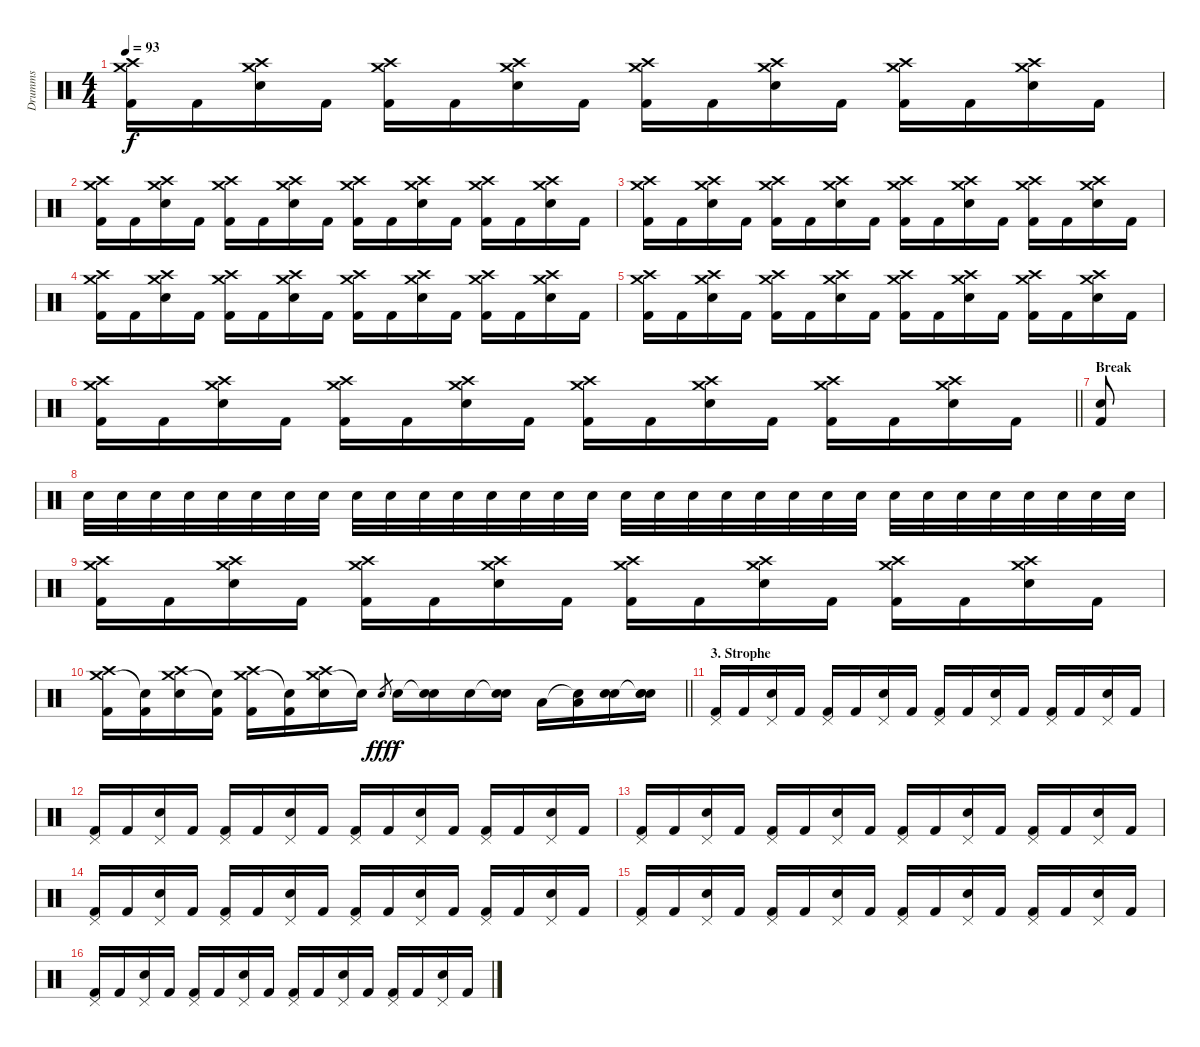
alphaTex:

\track ("Drumms" "Drumms") {instrument percussion}
\staff {score}
\articulation defaults
\ts (4 4)
\tempo 93
\clef neutral
\ks c
("Crash medium (hit)" "Crash high (hit)" "Kick (hit) 2").16{dy f} "Kick (hit) 2".16 ("Crash medium (hit)" "Crash high (hit)" "Electric Snare (hit)").16 "Kick (hit) 2".16 ("Crash medium (hit)" "Crash high (hit)" "Kick (hit) 2").16 "Kick (hit) 2".16 ("Crash medium (hit)" "Crash high (hit)" "Electric Snare (hit)").16 "Kick (hit) 2".16 ("Crash medium (hit)" "Crash high (hit)" "Kick (hit) 2").16 "Kick (hit) 2".16 ("Crash medium (hit)" "Crash high (hit)" "Electric Snare (hit)").16 "Kick (hit) 2".16 ("Crash medium (hit)" "Crash high (hit)" "Kick (hit) 2").16 "Kick (hit) 2".16 ("Crash medium (hit)" "Crash high (hit)" "Electric Snare (hit)").16 "Kick (hit) 2".16 |
("Crash medium (hit)" "Crash high (hit)" "Kick (hit) 2").16 "Kick (hit) 2".16 ("Crash medium (hit)" "Crash high (hit)" "Electric Snare (hit)").16 "Kick (hit) 2".16 ("Crash medium (hit)" "Crash high (hit)" "Kick (hit) 2").16 "Kick (hit) 2".16 ("Crash medium (hit)" "Crash high (hit)" "Electric Snare (hit)").16 "Kick (hit) 2".16 ("Crash medium (hit)" "Crash high (hit)" "Kick (hit) 2").16 "Kick (hit) 2".16 ("Crash medium (hit)" "Crash high (hit)" "Electric Snare (hit)").16 "Kick (hit) 2".16 ("Crash medium (hit)" "Crash high (hit)" "Kick (hit) 2").16 "Kick (hit) 2".16 ("Crash medium (hit)" "Crash high (hit)" "Electric Snare (hit)").16 "Kick (hit) 2".16 |
("Crash medium (hit)" "Crash high (hit)" "Kick (hit) 2").16 "Kick (hit) 2".16 ("Crash medium (hit)" "Crash high (hit)" "Electric Snare (hit)").16 "Kick (hit) 2".16 ("Crash medium (hit)" "Crash high (hit)" "Kick (hit) 2").16 "Kick (hit) 2".16 ("Crash medium (hit)" "Crash high (hit)" "Electric Snare (hit)").16 "Kick (hit) 2".16 ("Crash medium (hit)" "Crash high (hit)" "Kick (hit) 2").16 "Kick (hit) 2".16 ("Crash medium (hit)" "Crash high (hit)" "Electric Snare (hit)").16 "Kick (hit) 2".16 ("Crash medium (hit)" "Crash high (hit)" "Kick (hit) 2").16 "Kick (hit) 2".16 ("Crash medium (hit)" "Crash high (hit)" "Electric Snare (hit)").16 "Kick (hit) 2".16 |
("Crash medium (hit)" "Crash high (hit)" "Kick (hit) 2").16 "Kick (hit) 2".16 ("Crash medium (hit)" "Crash high (hit)" "Electric Snare (hit)").16 "Kick (hit) 2".16 ("Crash medium (hit)" "Crash high (hit)" "Kick (hit) 2").16 "Kick (hit) 2".16 ("Crash medium (hit)" "Crash high (hit)" "Electric Snare (hit)").16 "Kick (hit) 2".16 ("Crash medium (hit)" "Crash high (hit)" "Kick (hit) 2").16 "Kick (hit) 2".16 ("Crash medium (hit)" "Crash high (hit)" "Electric Snare (hit)").16 "Kick (hit) 2".16 ("Crash medium (hit)" "Crash high (hit)" "Kick (hit) 2").16 "Kick (hit) 2".16 ("Crash medium (hit)" "Crash high (hit)" "Electric Snare (hit)").16 "Kick (hit) 2".16 |
("Crash medium (hit)" "Crash high (hit)" "Kick (hit) 2").16 "Kick (hit) 2".16 ("Crash medium (hit)" "Crash high (hit)" "Electric Snare (hit)").16 "Kick (hit) 2".16 ("Crash medium (hit)" "Crash high (hit)" "Kick (hit) 2").16 "Kick (hit) 2".16 ("Crash medium (hit)" "Crash high (hit)" "Electric Snare (hit)").16 "Kick (hit) 2".16 ("Crash medium (hit)" "Crash high (hit)" "Kick (hit) 2").16 "Kick (hit) 2".16 ("Crash medium (hit)" "Crash high (hit)" "Electric Snare (hit)").16 "Kick (hit) 2".16 ("Crash medium (hit)" "Crash high (hit)" "Kick (hit) 2").16 "Kick (hit) 2".16 ("Crash medium (hit)" "Crash high (hit)" "Electric Snare (hit)").16 "Kick (hit) 2".16 |
\barLineRight lightlight
("Crash medium (hit)" "Crash high (hit)" "Kick (hit) 2").16 "Kick (hit) 2".16 ("Crash medium (hit)" "Crash high (hit)" "Electric Snare (hit)").16 "Kick (hit) 2".16 ("Crash medium (hit)" "Crash high (hit)" "Kick (hit) 2").16 "Kick (hit) 2".16 ("Crash medium (hit)" "Crash high (hit)" "Electric Snare (hit)").16 "Kick (hit) 2".16 ("Crash medium (hit)" "Crash high (hit)" "Kick (hit) 2").16 "Kick (hit) 2".16 ("Crash medium (hit)" "Crash high (hit)" "Electric Snare (hit)").16 "Kick (hit) 2".16 ("Crash medium (hit)" "Crash high (hit)" "Kick (hit) 2").16 "Kick (hit) 2".16 ("Crash medium (hit)" "Crash high (hit)" "Electric Snare (hit)").16 "Kick (hit) 2".16 |
\section ("" "Break")
("Electric Snare (hit)" "Kick (hit) 2").8 |
"Electric Snare (hit)".32 "Electric Snare (hit)".32 "Electric Snare (hit)".32 "Electric Snare (hit)".32 "Electric Snare (hit)".32 "Electric Snare (hit)".32 "Electric Snare (hit)".32 "Electric Snare (hit)".32 "Electric Snare (hit)".32 "Electric Snare (hit)".32 "Electric Snare (hit)".32 "Electric Snare (hit)".32 "Electric Snare (hit)".32 "Electric Snare (hit)".32 "Electric Snare (hit)".32 "Electric Snare (hit)".32 "Electric Snare (hit)".32 "Electric Snare (hit)".32 "Electric Snare (hit)".32 "Electric Snare (hit)".32 "Electric Snare (hit)".32 "Electric Snare (hit)".32 "Electric Snare (hit)".32 "Electric Snare (hit)".32 "Electric Snare (hit)".32 "Electric Snare (hit)".32 "Electric Snare (hit)".32 "Electric Snare (hit)".32 "Electric Snare (hit)".32 "Electric Snare (hit)".32 "Electric Snare (hit)".32 "Electric Snare (hit)".32 |
("Crash medium (hit)" "Crash high (hit)" "Kick (hit) 2").16 "Kick (hit) 2".16 ("Crash medium (hit)" "Crash high (hit)" "Electric Snare (hit)").16 "Kick (hit) 2".16 ("Crash medium (hit)" "Crash high (hit)" "Kick (hit) 2").16 "Kick (hit) 2".16 ("Crash medium (hit)" "Crash high (hit)" "Electric Snare (hit)").16 "Kick (hit) 2".16 ("Crash medium (hit)" "Crash high (hit)" "Kick (hit) 2").16 "Kick (hit) 2".16 ("Crash medium (hit)" "Crash high (hit)" "Electric Snare (hit)").16 "Kick (hit) 2".16 ("Crash medium (hit)" "Crash high (hit)" "Kick (hit) 2").16 "Kick (hit) 2".16 ("Crash medium (hit)" "Crash high (hit)" "Electric Snare (hit)").16 "Kick (hit) 2".16 |
\barLineRight lightlight
("Crash medium (hit)" "Crash high (hit)" "Kick (hit) 2").16 ("Snare (hit)"{t} "Kick (hit) 2").16 ("Crash medium (hit)" "Crash high (hit)" "Electric Snare (hit)").16 ("Snare (hit)"{t} "Kick (hit) 2").16 ("Crash medium (hit)" "Crash high (hit)" "Kick (hit) 2").16 ("Snare (hit)"{t} "Kick (hit) 2").16 ("Crash medium (hit)" "Crash high (hit)" "Electric Snare (hit)").16 "Snare (hit)"{t}.16 "Electric Snare (hit)".8{gr dy fff} "Electric Snare (hit)".16{dy f} ("Snare (hit)"{t} "Electric Snare (hit)").16 "Snare (hit) 2".16 ("Snare (hit)"{t} "Snare (hit) 2").16 "Low Tom (hit)".16 ("Snare (hit)"{t} "Low Tom (hit)").16 ("Electric Snare (hit)" "Snare (hit) 2").16 ("Snare (hit)"{t} "Electric Snare (hit)" "Snare (hit) 2").16 |
\section ("" "3. Strophe")
("Pedal Hi-Hat (hit)" "Kick (hit) 2").16 "Kick (hit) 2".16 ("Pedal Hi-Hat (hit)" "Electric Snare (hit)").16 "Kick (hit) 2".16 ("Pedal Hi-Hat (hit)" "Kick (hit) 2").16 "Kick (hit) 2".16 ("Pedal Hi-Hat (hit)" "Electric Snare (hit)").16 "Kick (hit) 2".16 ("Pedal Hi-Hat (hit)" "Kick (hit) 2").16 "Kick (hit) 2".16 ("Pedal Hi-Hat (hit)" "Electric Snare (hit)").16 "Kick (hit) 2".16 ("Pedal Hi-Hat (hit)" "Kick (hit) 2").16 "Kick (hit) 2".16 ("Pedal Hi-Hat (hit)" "Electric Snare (hit)").16 "Kick (hit) 2".16 |
("Pedal Hi-Hat (hit)" "Kick (hit) 2").16 "Kick (hit) 2".16 ("Pedal Hi-Hat (hit)" "Electric Snare (hit)").16 "Kick (hit) 2".16 ("Pedal Hi-Hat (hit)" "Kick (hit) 2").16 "Kick (hit) 2".16 ("Pedal Hi-Hat (hit)" "Electric Snare (hit)").16 "Kick (hit) 2".16 ("Pedal Hi-Hat (hit)" "Kick (hit) 2").16 "Kick (hit) 2".16 ("Pedal Hi-Hat (hit)" "Electric Snare (hit)").16 "Kick (hit) 2".16 ("Pedal Hi-Hat (hit)" "Kick (hit) 2").16 "Kick (hit) 2".16 ("Pedal Hi-Hat (hit)" "Electric Snare (hit)").16 "Kick (hit) 2".16 |
("Pedal Hi-Hat (hit)" "Kick (hit) 2").16 "Kick (hit) 2".16 ("Pedal Hi-Hat (hit)" "Electric Snare (hit)").16 "Kick (hit) 2".16 ("Pedal Hi-Hat (hit)" "Kick (hit) 2").16 "Kick (hit) 2".16 ("Pedal Hi-Hat (hit)" "Electric Snare (hit)").16 "Kick (hit) 2".16 ("Pedal Hi-Hat (hit)" "Kick (hit) 2").16 "Kick (hit) 2".16 ("Pedal Hi-Hat (hit)" "Electric Snare (hit)").16 "Kick (hit) 2".16 ("Pedal Hi-Hat (hit)" "Kick (hit) 2").16 "Kick (hit) 2".16 ("Pedal Hi-Hat (hit)" "Electric Snare (hit)").16 "Kick (hit) 2".16 |
("Pedal Hi-Hat (hit)" "Kick (hit) 2").16 "Kick (hit) 2".16 ("Pedal Hi-Hat (hit)" "Electric Snare (hit)").16 "Kick (hit) 2".16 ("Pedal Hi-Hat (hit)" "Kick (hit) 2").16 "Kick (hit) 2".16 ("Pedal Hi-Hat (hit)" "Electric Snare (hit)").16 "Kick (hit) 2".16 ("Pedal Hi-Hat (hit)" "Kick (hit) 2").16 "Kick (hit) 2".16 ("Pedal Hi-Hat (hit)" "Electric Snare (hit)").16 "Kick (hit) 2".16 ("Pedal Hi-Hat (hit)" "Kick (hit) 2").16 "Kick (hit) 2".16 ("Pedal Hi-Hat (hit)" "Electric Snare (hit)").16 "Kick (hit) 2".16 |
("Pedal Hi-Hat (hit)" "Kick (hit) 2").16 "Kick (hit) 2".16 ("Pedal Hi-Hat (hit)" "Electric Snare (hit)").16 "Kick (hit) 2".16 ("Pedal Hi-Hat (hit)" "Kick (hit) 2").16 "Kick (hit) 2".16 ("Pedal Hi-Hat (hit)" "Electric Snare (hit)").16 "Kick (hit) 2".16 ("Pedal Hi-Hat (hit)" "Kick (hit) 2").16 "Kick (hit) 2".16 ("Pedal Hi-Hat (hit)" "Electric Snare (hit)").16 "Kick (hit) 2".16 ("Pedal Hi-Hat (hit)" "Kick (hit) 2").16 "Kick (hit) 2".16 ("Pedal Hi-Hat (hit)" "Electric Snare (hit)").16 "Kick (hit) 2".16 |
("Pedal Hi-Hat (hit)" "Kick (hit) 2").16 "Kick (hit) 2".16 ("Pedal Hi-Hat (hit)" "Electric Snare (hit)").16 "Kick (hit) 2".16 ("Pedal Hi-Hat (hit)" "Kick (hit) 2").16 "Kick (hit) 2".16 ("Pedal Hi-Hat (hit)" "Electric Snare (hit)").16 "Kick (hit) 2".16 ("Pedal Hi-Hat (hit)" "Kick (hit) 2").16 "Kick (hit) 2".16 ("Pedal Hi-Hat (hit)" "Electric Snare (hit)").16 "Kick (hit) 2".16 ("Pedal Hi-Hat (hit)" "Kick (hit) 2").16 "Kick (hit) 2".16 ("Pedal Hi-Hat (hit)" "Electric Snare (hit)").16 "Kick (hit) 2".16
